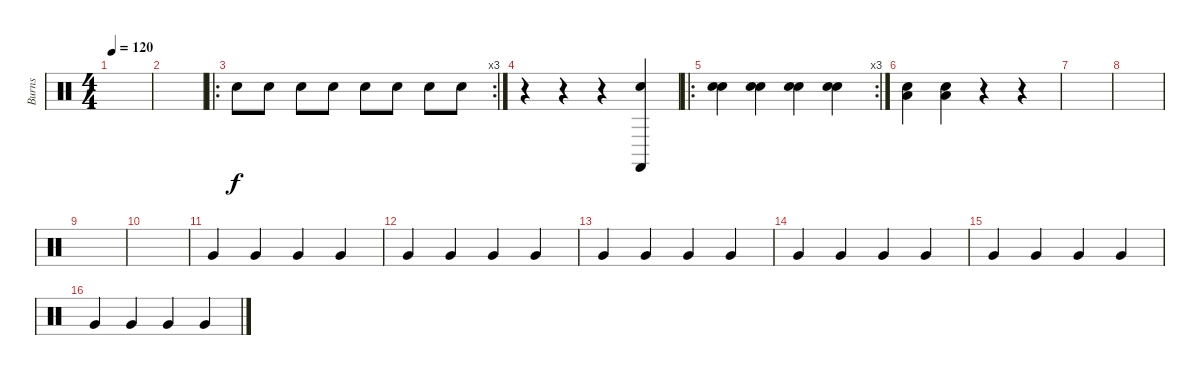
\track ("Burns" "Burns") {instrument percussion}
\staff {score}
\articulation defaults
\ts (4 4)
\tempo 120
\clef neutral
\ks c
|
|
\ro
\rc 3 "Snare (hit) 2".8 "Snare (hit) 2".8 "Snare (hit) 2".8 "Snare (hit) 2".8 "Snare (hit) 2".8 "Snare (hit) 2".8 "Snare (hit) 2".8 "Snare (hit) 2".8
|
r.4 r.4 r.4 ("Snare (hit) 2" "Castanets (hit)").4 |
\ro
\rc 3
("Snare (hit) 2" "Electric Snare (hit)").4 ("Snare (hit) 2" "Electric Snare (hit)").4 ("Snare (hit) 2" "Electric Snare (hit)").4 ("Snare (hit) 2" "Electric Snare (hit)").4 |
("Snare (hit) 2" "Low Floor Tom (hit)").4 ("Snare (hit) 2" "Low Floor Tom (hit)").4 r.4 r.4 |
|
|
|
|
"Very Low Tom (hit)".4 "Very Low Tom (hit)".4 "Very Low Tom (hit)".4 "Very Low Tom (hit)".4 |
"Very Low Tom (hit)".4 "Very Low Tom (hit)".4 "Very Low Tom (hit)".4 "Very Low Tom (hit)".4 |
"Very Low Tom (hit)".4 "Very Low Tom (hit)".4 "Very Low Tom (hit)".4 "Very Low Tom (hit)".4 |
"Very Low Tom (hit)".4 "Very Low Tom (hit)".4 "Very Low Tom (hit)".4 "Very Low Tom (hit)".4 |
"Very Low Tom (hit)".4 "Very Low Tom (hit)".4 "Very Low Tom (hit)".4 "Very Low Tom (hit)".4 |
"Very Low Tom (hit)".4 "Very Low Tom (hit)".4 "Very Low Tom (hit)".4 "Very Low Tom (hit)".4
